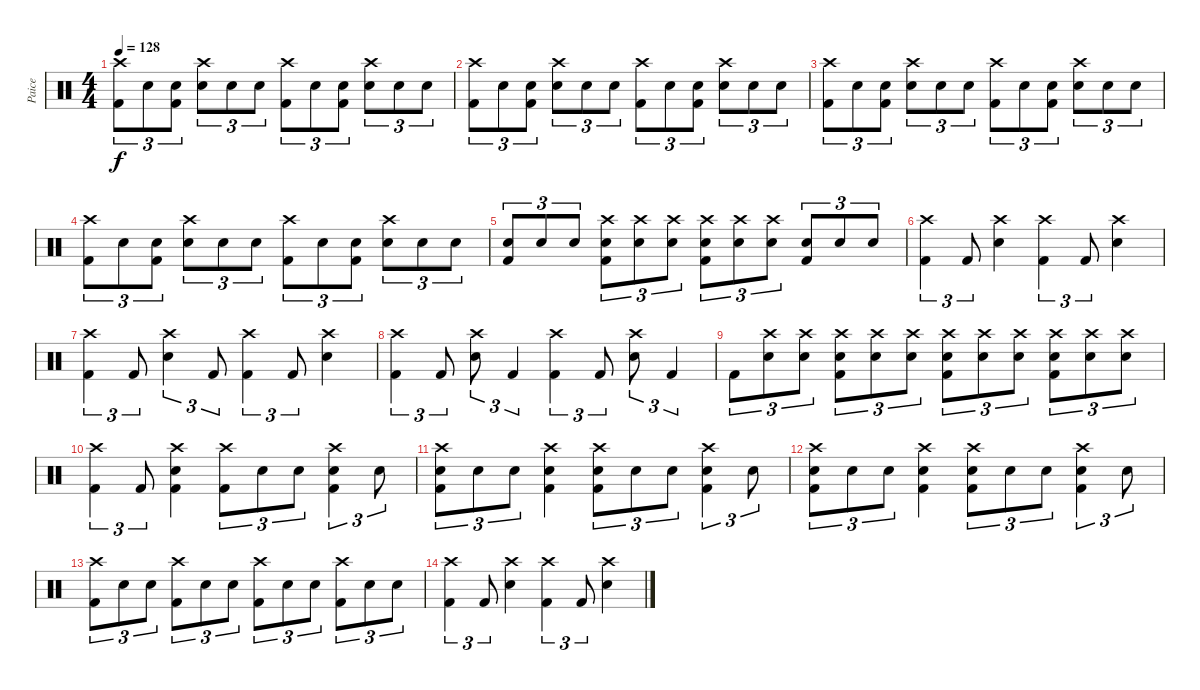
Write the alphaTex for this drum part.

\track ("Paice" "Paice") {instrument percussion}
\staff {score}
\articulation defaults
\ts (4 4)
\tempo 128
\clef neutral
\ks c
("Crash high (hit)" "Kick (hit) 2").8{tu (3 2) dy f} "Snare (hit) 2".8{tu (3 2)} ("Snare (hit) 2" "Kick (hit) 2").8{tu (3 2)} ("Crash high (hit)" "Snare (hit) 2").8{tu (3 2)} "Snare (hit) 2".8{tu (3 2)} "Snare (hit) 2".8{tu (3 2)} ("Crash high (hit)" "Kick (hit) 2").8{tu (3 2)} "Snare (hit) 2".8{tu (3 2)} ("Snare (hit) 2" "Kick (hit) 2").8{tu (3 2)} ("Crash high (hit)" "Snare (hit) 2").8{tu (3 2)} "Snare (hit) 2".8{tu (3 2)} "Snare (hit) 2".8{tu (3 2)} |
("Crash high (hit)" "Kick (hit) 2").8{tu (3 2)} "Snare (hit) 2".8{tu (3 2)} ("Snare (hit) 2" "Kick (hit) 2").8{tu (3 2)} ("Crash high (hit)" "Snare (hit) 2").8{tu (3 2)} "Snare (hit) 2".8{tu (3 2)} "Snare (hit) 2".8{tu (3 2)} ("Crash high (hit)" "Kick (hit) 2").8{tu (3 2)} "Snare (hit) 2".8{tu (3 2)} ("Snare (hit) 2" "Kick (hit) 2").8{tu (3 2)} ("Crash high (hit)" "Snare (hit) 2").8{tu (3 2)} "Snare (hit) 2".8{tu (3 2)} "Snare (hit) 2".8{tu (3 2)} |
("Crash high (hit)" "Kick (hit) 2").8{tu (3 2)} "Snare (hit) 2".8{tu (3 2)} ("Snare (hit) 2" "Kick (hit) 2").8{tu (3 2)} ("Crash high (hit)" "Snare (hit) 2").8{tu (3 2)} "Snare (hit) 2".8{tu (3 2)} "Snare (hit) 2".8{tu (3 2)} ("Crash high (hit)" "Kick (hit) 2").8{tu (3 2)} "Snare (hit) 2".8{tu (3 2)} ("Snare (hit) 2" "Kick (hit) 2").8{tu (3 2)} ("Crash high (hit)" "Snare (hit) 2").8{tu (3 2)} "Snare (hit) 2".8{tu (3 2)} "Snare (hit) 2".8{tu (3 2)} |
("Crash high (hit)" "Kick (hit) 2").8{tu (3 2)} "Snare (hit) 2".8{tu (3 2)} ("Snare (hit) 2" "Kick (hit) 2").8{tu (3 2)} ("Crash high (hit)" "Snare (hit) 2").8{tu (3 2)} "Snare (hit) 2".8{tu (3 2)} "Snare (hit) 2".8{tu (3 2)} ("Crash high (hit)" "Kick (hit) 2").8{tu (3 2)} "Snare (hit) 2".8{tu (3 2)} ("Snare (hit) 2" "Kick (hit) 2").8{tu (3 2)} ("Crash high (hit)" "Snare (hit) 2").8{tu (3 2)} "Snare (hit) 2".8{tu (3 2)} "Snare (hit) 2".8{tu (3 2)} |
("Snare (hit) 2" "Kick (hit) 2").8{tu (3 2)} "Snare (hit) 2".8{tu (3 2)} "Snare (hit) 2".8{tu (3 2)} ("Crash high (hit)" "Snare (hit) 2" "Kick (hit) 2").8{tu (3 2)} ("Crash high (hit)" "Snare (hit) 2").8{tu (3 2)} ("Crash high (hit)" "Snare (hit) 2").8{tu (3 2)} ("Crash high (hit)" "Snare (hit) 2" "Kick (hit) 2").8{tu (3 2)} ("Crash high (hit)" "Snare (hit) 2").8{tu (3 2)} ("Crash high (hit)" "Snare (hit) 2").8{tu (3 2)} ("Snare (hit) 2" "Kick (hit) 2").8{tu (3 2)} "Snare (hit) 2".8{tu (3 2)} "Snare (hit) 2".8{tu (3 2)} |
("Crash high (hit)" "Kick (hit) 2").4{tu (3 2)} "Kick (hit) 2".8{tu (3 2)} ("Crash high (hit)" "Snare (hit) 2").4 ("Crash high (hit)" "Kick (hit) 2").4{tu (3 2)} "Kick (hit) 2".8{tu (3 2)} ("Crash high (hit)" "Snare (hit) 2").4 |
("Crash high (hit)" "Kick (hit) 2").4{tu (3 2)} "Kick (hit) 2".8{tu (3 2)} ("Crash high (hit)" "Snare (hit) 2").4{tu (3 2)} "Kick (hit) 2".8{tu (3 2)} ("Crash high (hit)" "Kick (hit) 2").4{tu (3 2)} "Kick (hit) 2".8{tu (3 2)} ("Crash high (hit)" "Snare (hit) 2").4 |
("Crash high (hit)" "Kick (hit) 2").4{tu (3 2)} "Kick (hit) 2".8{tu (3 2)} ("Crash high (hit)" "Snare (hit) 2").8{tu (3 2)} "Kick (hit) 2".4{tu (3 2)} ("Crash high (hit)" "Kick (hit) 2").4{tu (3 2)} "Kick (hit) 2".8{tu (3 2)} ("Crash high (hit)" "Snare (hit) 2").8{tu (3 2)} "Kick (hit) 2".4{tu (3 2)} |
"Kick (hit) 2".8{tu (3 2)} ("Crash high (hit)" "Snare (hit) 2").8{tu (3 2)} ("Crash high (hit)" "Snare (hit) 2").8{tu (3 2)} ("Crash high (hit)" "Snare (hit) 2" "Kick (hit) 2").8{tu (3 2)} ("Crash high (hit)" "Snare (hit) 2").8{tu (3 2)} ("Crash high (hit)" "Snare (hit) 2").8{tu (3 2)} ("Crash high (hit)" "Snare (hit) 2" "Kick (hit) 2").8{tu (3 2)} ("Crash high (hit)" "Snare (hit) 2").8{tu (3 2)} ("Crash high (hit)" "Snare (hit) 2").8{tu (3 2)} ("Crash high (hit)" "Snare (hit) 2" "Kick (hit) 2").8{tu (3 2)} ("Crash high (hit)" "Snare (hit) 2").8{tu (3 2)} ("Crash high (hit)" "Snare (hit) 2").8{tu (3 2)} |
("Crash high (hit)" "Kick (hit) 2").4{tu (3 2)} "Kick (hit) 2".8{tu (3 2)} ("Crash high (hit)" "Snare (hit) 2" "Kick (hit) 2").4 ("Crash high (hit)" "Kick (hit) 2").8{tu (3 2)} "Snare (hit) 2".8{tu (3 2)} "Snare (hit) 2".8{tu (3 2)} ("Crash high (hit)" "Snare (hit) 2" "Kick (hit) 2").4{tu (3 2)} "Snare (hit) 2".8{tu (3 2)} |
("Crash high (hit)" "Snare (hit) 2" "Kick (hit) 2").8{tu (3 2)} "Snare (hit) 2".8{tu (3 2)} "Snare (hit) 2".8{tu (3 2)} ("Crash high (hit)" "Snare (hit) 2" "Kick (hit) 2").4 ("Crash high (hit)" "Snare (hit) 2" "Kick (hit) 2").8{tu (3 2)} "Snare (hit) 2".8{tu (3 2)} "Snare (hit) 2".8{tu (3 2)} ("Crash high (hit)" "Snare (hit) 2" "Kick (hit) 2").4{tu (3 2)} "Snare (hit) 2".8{tu (3 2)} |
("Crash high (hit)" "Snare (hit) 2" "Kick (hit) 2").8{tu (3 2)} "Snare (hit) 2".8{tu (3 2)} "Snare (hit) 2".8{tu (3 2)} ("Crash high (hit)" "Snare (hit) 2" "Kick (hit) 2").4 ("Crash high (hit)" "Snare (hit) 2" "Kick (hit) 2").8{tu (3 2)} "Snare (hit) 2".8{tu (3 2)} "Snare (hit) 2".8{tu (3 2)} ("Crash high (hit)" "Snare (hit) 2" "Kick (hit) 2").4{tu (3 2)} "Snare (hit) 2".8{tu (3 2)} |
("Crash high (hit)" "Kick (hit) 2").8{tu (3 2) volume 0} "Snare (hit) 2".8{tu (3 2)} "Snare (hit) 2".8{tu (3 2)} ("Crash high (hit)" "Kick (hit) 2").8{tu (3 2)} "Snare (hit) 2".8{tu (3 2)} "Snare (hit) 2".8{tu (3 2)} ("Crash high (hit)" "Kick (hit) 2").8{tu (3 2)} "Snare (hit) 2".8{tu (3 2)} "Snare (hit) 2".8{tu (3 2)} ("Crash high (hit)" "Kick (hit) 2").8{tu (3 2)} "Snare (hit) 2".8{tu (3 2)} "Snare (hit) 2".8{tu (3 2)} |
("Crash high (hit)" "Kick (hit) 2").4{tu (3 2)} "Kick (hit) 2".8{tu (3 2)} ("Crash high (hit)" "Snare (hit) 2").4 ("Crash high (hit)" "Kick (hit) 2").4{tu (3 2)} "Kick (hit) 2".8{tu (3 2)} ("Crash high (hit)" "Snare (hit) 2").4
